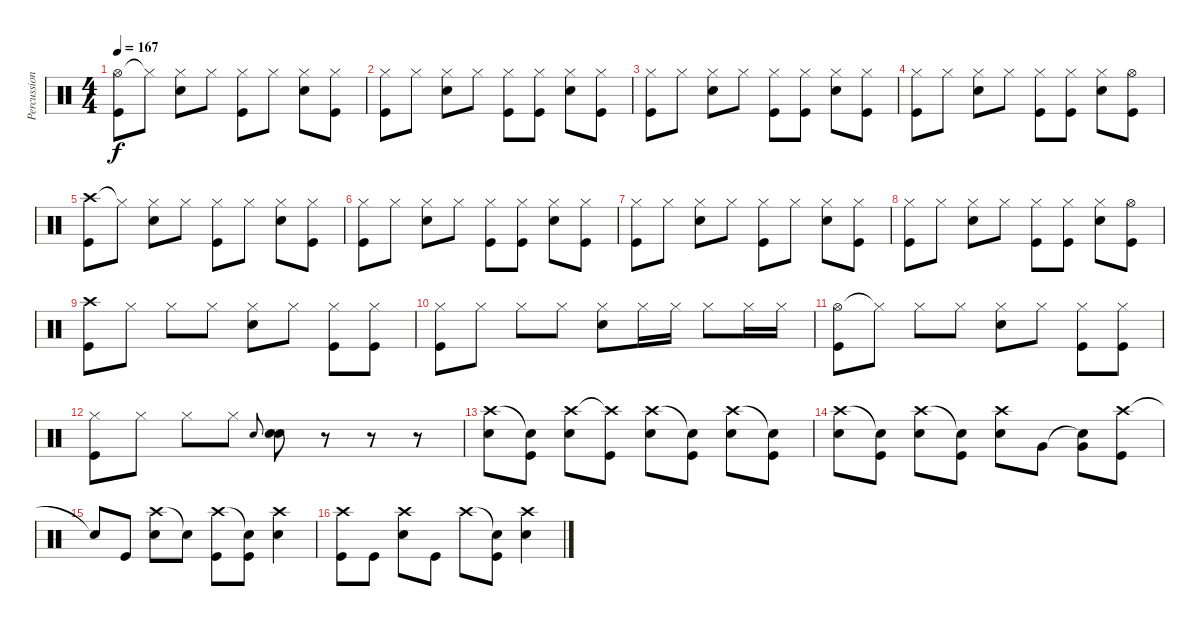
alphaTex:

\track ("Percussion" "Percussion") {instrument percussion}
\staff {score}
\articulation defaults
\ts (4 4)
\tempo 167
\clef neutral
\ks c
("Hi-Hat (open)" "Kick (hit)").8{dy f} "Hi-Hat (closed)"{t}.8 ("Hi-Hat (closed)" "Electric Snare (hit)").8 "Hi-Hat (closed)".8 ("Hi-Hat (closed)" "Kick (hit)").8 "Hi-Hat (closed)".8 ("Hi-Hat (closed)" "Electric Snare (hit)").8 ("Hi-Hat (closed)" "Kick (hit)").8 |
("Hi-Hat (closed)" "Kick (hit)").8 "Hi-Hat (closed)".8 ("Hi-Hat (closed)" "Electric Snare (hit)").8 "Hi-Hat (closed)".8 ("Hi-Hat (closed)" "Kick (hit)").8 ("Hi-Hat (closed)" "Kick (hit)").8 ("Hi-Hat (closed)" "Electric Snare (hit)").8 ("Hi-Hat (closed)" "Kick (hit)").8 |
("Hi-Hat (closed)" "Kick (hit)").8 "Hi-Hat (closed)".8 ("Hi-Hat (closed)" "Electric Snare (hit)").8 "Hi-Hat (closed)".8 ("Hi-Hat (closed)" "Kick (hit)").8 ("Hi-Hat (closed)" "Kick (hit)").8 ("Hi-Hat (closed)" "Electric Snare (hit)").8 ("Hi-Hat (closed)" "Kick (hit)").8 |
("Hi-Hat (closed)" "Kick (hit)").8 "Hi-Hat (closed)".8 ("Hi-Hat (closed)" "Electric Snare (hit)").8 "Hi-Hat (closed)".8 ("Hi-Hat (closed)" "Kick (hit)").8 ("Hi-Hat (closed)" "Kick (hit)").8 ("Hi-Hat (closed)" "Electric Snare (hit)").8 ("Hi-Hat (open)" "Kick (hit)").8 |
("Crash high (hit)" "Kick (hit)").8 "Hi-Hat (closed)"{t}.8 ("Hi-Hat (closed)" "Electric Snare (hit)").8 "Hi-Hat (closed)".8 ("Hi-Hat (closed)" "Kick (hit)").8 "Hi-Hat (closed)".8 ("Hi-Hat (closed)" "Electric Snare (hit)").8 ("Hi-Hat (closed)" "Kick (hit)").8 |
("Hi-Hat (closed)" "Kick (hit)").8 "Hi-Hat (closed)".8 ("Hi-Hat (closed)" "Electric Snare (hit)").8 "Hi-Hat (closed)".8 ("Hi-Hat (closed)" "Kick (hit)").8 ("Hi-Hat (closed)" "Kick (hit)").8 ("Hi-Hat (closed)" "Electric Snare (hit)").8 ("Hi-Hat (closed)" "Kick (hit)").8 |
("Hi-Hat (closed)" "Kick (hit)").8 "Hi-Hat (closed)".8 ("Hi-Hat (closed)" "Electric Snare (hit)").8 "Hi-Hat (closed)".8 ("Hi-Hat (closed)" "Kick (hit)").8 "Hi-Hat (closed)".8 ("Hi-Hat (closed)" "Electric Snare (hit)").8 ("Hi-Hat (closed)" "Kick (hit)").8 |
("Hi-Hat (closed)" "Kick (hit)").8 "Hi-Hat (closed)".8 ("Hi-Hat (closed)" "Electric Snare (hit)").8 "Hi-Hat (closed)".8 ("Hi-Hat (closed)" "Kick (hit)").8 ("Hi-Hat (closed)" "Kick (hit)").8 ("Hi-Hat (closed)" "Electric Snare (hit)").8 ("Hi-Hat (open)" "Kick (hit)").8 |
("Crash high (hit)" "Kick (hit)").8 "Hi-Hat (closed)".8 "Hi-Hat (closed)".8 "Hi-Hat (closed)".8 ("Hi-Hat (closed)" "Electric Snare (hit)").8 "Hi-Hat (closed)".8 ("Hi-Hat (closed)" "Kick (hit)").8 ("Hi-Hat (closed)" "Kick (hit)").8 |
("Hi-Hat (closed)" "Kick (hit)").8 "Hi-Hat (closed)".8 "Hi-Hat (closed)".8 "Hi-Hat (closed)".8 ("Hi-Hat (closed)" "Electric Snare (hit)").8 "Hi-Hat (closed)".16 "Hi-Hat (closed)".16 "Hi-Hat (closed)".8 "Hi-Hat (closed)".16 "Hi-Hat (closed)".16 |
("Hi-Hat (open)" "Kick (hit)").8 "Hi-Hat (closed)"{t}.8 "Hi-Hat (closed)".8 "Hi-Hat (closed)".8 ("Hi-Hat (closed)" "Electric Snare (hit)").8 "Hi-Hat (closed)".8 ("Hi-Hat (closed)" "Kick (hit)").8 ("Hi-Hat (closed)" "Kick (hit)").8 |
("Hi-Hat (closed)" "Kick (hit)").8 "Hi-Hat (closed)".8 "Hi-Hat (closed)".8 "Hi-Hat (closed)".8 "Electric Snare (hit)".8{gr onbeat} ("Electric Snare (hit)" "Electric Snare (hit)").8 r.8 r.8 r.8 |
("Crash high (hit)" "Electric Snare (hit)").8 ("Snare (hit)"{t} "Kick (hit)").8 ("Crash high (hit)" "Electric Snare (hit)").8 ("Crash high (hit)"{t} "Kick (hit)").8 ("Crash high (hit)" "Electric Snare (hit)").8 ("Snare (hit)"{t} "Kick (hit)").8 ("Crash high (hit)" "Electric Snare (hit)").8 ("Snare (hit)"{t} "Kick (hit)").8 |
("Crash high (hit)" "Electric Snare (hit)").8 ("Snare (hit)"{t} "Kick (hit)").8 ("Crash high (hit)" "Electric Snare (hit)").8 ("Snare (hit)"{t} "Kick (hit)").8 ("Crash high (hit)" "Electric Snare (hit)").8 "Very Low Tom (hit)".8 ("Snare (hit)"{t} "Very Low Tom (hit)").8 ("Crash high (hit)" "Kick (hit)").8 |
"Snare (hit)"{t}.8 "Kick (hit)".8 ("Crash high (hit)" "Electric Snare (hit)").8 "Snare (hit)"{t}.8 ("Crash high (hit)" "Kick (hit)").8 ("Snare (hit)"{t} "Kick (hit)").8 ("Crash high (hit)" "Electric Snare (hit)").4 |
("Crash high (hit)" "Kick (hit)").8 "Kick (hit)".8 ("Crash high (hit)" "Electric Snare (hit)").8 "Kick (hit)".8 "Crash high (hit)".8 ("Snare (hit)"{t} "Kick (hit)").8 ("Crash high (hit)" "Electric Snare (hit)").4
